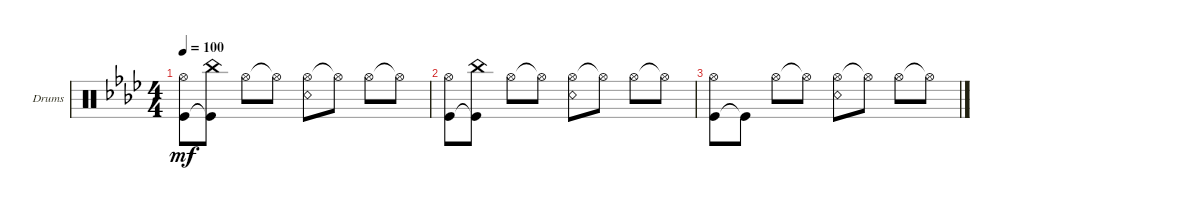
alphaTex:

\defaultSystemsLayout 4
\bracketExtendMode groupsimilarinstruments
\firstSystemTrackNameOrientation horizontal
\otherSystemsTrackNameOrientation horizontal
\track ("Drumkit" "Drums") {multiBarRest instrument percussion}
\staff {score}
\articulation defaults
\ts (4 4)
\tempo 100
\clef neutral
\ks fminor
("Kick (hit)" "Hi-Hat (open)").8{dy mf} ("Kick (hit)"{t} "China (hit)").8 "Hi-Hat (open)".8 "Hi-Hat (open)"{t}.8 ("Hi-Hat (open)" "Snare (rim shot)").8 "Hi-Hat (open)"{t}.8 "Hi-Hat (open)".8 "Hi-Hat (open)"{t}.8 |
("Kick (hit)" "Hi-Hat (open)").8 ("Kick (hit)"{t} "China (hit)").8 "Hi-Hat (open)".8 "Hi-Hat (open)"{t}.8 ("Hi-Hat (open)" "Snare (rim shot)").8 "Hi-Hat (open)"{t}.8 "Hi-Hat (open)".8 "Hi-Hat (open)"{t}.8 |
("Kick (hit)" "Hi-Hat (open)").8 "Kick (hit)"{t}.8 "Hi-Hat (open)".8 "Hi-Hat (open)"{t}.8 ("Hi-Hat (open)" "Snare (rim shot)").8 "Hi-Hat (open)"{t}.8 "Hi-Hat (open)".8 "Hi-Hat (open)"{t}.8
